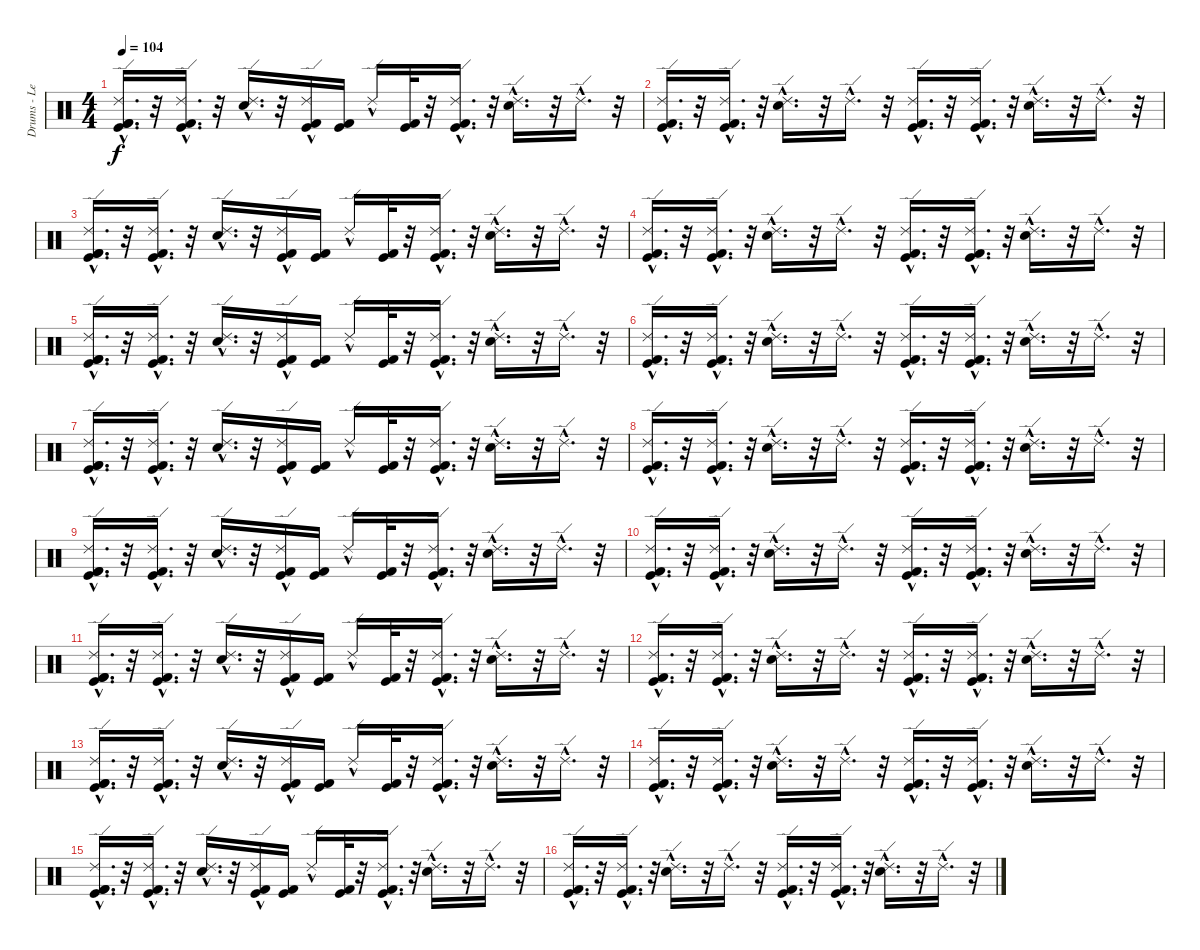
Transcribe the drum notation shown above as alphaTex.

\track ("Drums - Les Claypool" "Drums - Le") {instrument percussion}
\staff {score}
\articulation defaults
\ts (4 4)
\tempo 104
\clef neutral
\ks c
("Kick (hit) 2"{hac} "Ride (edge) 2"{hac} "Kick (hit) 2"{hac} "Kick (hit)"{hac}).16{d dy f} r.32 ("Ride (edge) 2"{hac} "Kick (hit) 2"{hac} "Kick (hit)"{hac}).16{d} r.32 ("Ride (edge) 2"{hac} "Snare (hit) 2"{hac}).16{d} r.32 ("Kick (hit) 2" "Kick (hit)" "Ride (edge) 2"{hac}).16 ("Kick (hit) 2" "Kick (hit)").16 "Ride (edge) 2"{hac}.16 ("Kick (hit) 2" "Kick (hit)").32 r.32 ("Kick (hit) 2"{hac} "Kick (hit)" "Ride (edge) 2"{hac}).16{d} r.32 ("Ride (edge) 2"{hac} "Snare (hit) 2"{hac}).16{d} r.32 "Ride (edge) 2"{hac}.16{d} r.32 |
("Ride (edge) 2"{hac} "Kick (hit) 2"{hac} "Kick (hit)"{hac}).16{d} r.32 ("Kick (hit) 2"{hac} "Ride (edge) 2"{hac} "Kick (hit)"{hac}).16{d} r.32 ("Ride (edge) 2"{hac} "Snare (hit) 2"{hac}).16{d} r.32 "Ride (edge) 2"{hac}.16{d} r.32 ("Kick (hit) 2"{hac} "Ride (edge) 2"{hac} "Kick (hit)"{hac}).16{d} r.32 ("Kick (hit) 2"{hac} "Kick (hit)"{hac} "Ride (edge) 2"{hac}).16{d} r.32 ("Ride (edge) 2"{hac} "Snare (hit) 2"{hac}).16{d} r.32 "Ride (edge) 2"{hac}.16{d} r.32 |
("Kick (hit) 2"{hac} "Ride (edge) 2"{hac} "Kick (hit) 2"{hac} "Kick (hit)"{hac}).16{d} r.32 ("Ride (edge) 2"{hac} "Kick (hit) 2"{hac} "Kick (hit)"{hac}).16{d} r.32 ("Ride (edge) 2"{hac} "Snare (hit) 2"{hac}).16{d} r.32 ("Kick (hit) 2" "Kick (hit)" "Ride (edge) 2"{hac}).16 ("Kick (hit) 2" "Kick (hit)").16 "Ride (edge) 2"{hac}.16 ("Kick (hit) 2" "Kick (hit)").32 r.32 ("Kick (hit) 2"{hac} "Kick (hit)" "Ride (edge) 2"{hac}).16{d} r.32 ("Ride (edge) 2"{hac} "Snare (hit) 2"{hac}).16{d} r.32 "Ride (edge) 2"{hac}.16{d} r.32 |
("Ride (edge) 2"{hac} "Kick (hit) 2"{hac} "Kick (hit)"{hac}).16{d} r.32 ("Kick (hit) 2"{hac} "Ride (edge) 2"{hac} "Kick (hit)"{hac}).16{d} r.32 ("Ride (edge) 2"{hac} "Snare (hit) 2"{hac}).16{d} r.32 "Ride (edge) 2"{hac}.16{d} r.32 ("Kick (hit) 2"{hac} "Ride (edge) 2"{hac} "Kick (hit)"{hac}).16{d} r.32 ("Kick (hit) 2"{hac} "Kick (hit)"{hac} "Ride (edge) 2"{hac}).16{d} r.32 ("Ride (edge) 2"{hac} "Snare (hit) 2"{hac}).16{d} r.32 "Ride (edge) 2"{hac}.16{d} r.32 |
("Kick (hit) 2"{hac} "Ride (edge) 2"{hac} "Kick (hit) 2"{hac} "Kick (hit)"{hac}).16{d} r.32 ("Ride (edge) 2"{hac} "Kick (hit) 2"{hac} "Kick (hit)"{hac}).16{d} r.32 ("Ride (edge) 2"{hac} "Snare (hit) 2"{hac}).16{d} r.32 ("Kick (hit) 2" "Kick (hit)" "Ride (edge) 2"{hac}).16 ("Kick (hit) 2" "Kick (hit)").16 "Ride (edge) 2"{hac}.16 ("Kick (hit) 2" "Kick (hit)").32 r.32 ("Kick (hit) 2"{hac} "Kick (hit)" "Ride (edge) 2"{hac}).16{d} r.32 ("Ride (edge) 2"{hac} "Snare (hit) 2"{hac}).16{d} r.32 "Ride (edge) 2"{hac}.16{d} r.32 |
("Ride (edge) 2"{hac} "Kick (hit) 2"{hac} "Kick (hit)"{hac}).16{d} r.32 ("Kick (hit) 2"{hac} "Ride (edge) 2"{hac} "Kick (hit)"{hac}).16{d} r.32 ("Ride (edge) 2"{hac} "Snare (hit) 2"{hac}).16{d} r.32 "Ride (edge) 2"{hac}.16{d} r.32 ("Kick (hit) 2"{hac} "Ride (edge) 2"{hac} "Kick (hit)"{hac}).16{d} r.32 ("Kick (hit) 2"{hac} "Kick (hit)"{hac} "Ride (edge) 2"{hac}).16{d} r.32 ("Ride (edge) 2"{hac} "Snare (hit) 2"{hac}).16{d} r.32 "Ride (edge) 2"{hac}.16{d} r.32 |
("Kick (hit) 2"{hac} "Ride (edge) 2"{hac} "Kick (hit) 2"{hac} "Kick (hit)"{hac}).16{d} r.32 ("Ride (edge) 2"{hac} "Kick (hit) 2"{hac} "Kick (hit)"{hac}).16{d} r.32 ("Ride (edge) 2"{hac} "Snare (hit) 2"{hac}).16{d} r.32 ("Kick (hit) 2" "Kick (hit)" "Ride (edge) 2"{hac}).16 ("Kick (hit) 2" "Kick (hit)").16 "Ride (edge) 2"{hac}.16 ("Kick (hit) 2" "Kick (hit)").32 r.32 ("Kick (hit) 2"{hac} "Kick (hit)" "Ride (edge) 2"{hac}).16{d} r.32 ("Ride (edge) 2"{hac} "Snare (hit) 2"{hac}).16{d} r.32 "Ride (edge) 2"{hac}.16{d} r.32 |
("Ride (edge) 2"{hac} "Kick (hit) 2"{hac} "Kick (hit)"{hac}).16{d} r.32 ("Kick (hit) 2"{hac} "Ride (edge) 2"{hac} "Kick (hit)"{hac}).16{d} r.32 ("Ride (edge) 2"{hac} "Snare (hit) 2"{hac}).16{d} r.32 "Ride (edge) 2"{hac}.16{d} r.32 ("Kick (hit) 2"{hac} "Ride (edge) 2"{hac} "Kick (hit)"{hac}).16{d} r.32 ("Kick (hit) 2"{hac} "Kick (hit)"{hac} "Ride (edge) 2"{hac}).16{d} r.32 ("Ride (edge) 2"{hac} "Snare (hit) 2"{hac}).16{d} r.32 "Ride (edge) 2"{hac}.16{d} r.32 |
("Kick (hit) 2"{hac} "Ride (edge) 2"{hac} "Kick (hit) 2"{hac} "Kick (hit)"{hac}).16{d} r.32 ("Ride (edge) 2"{hac} "Kick (hit) 2"{hac} "Kick (hit)"{hac}).16{d} r.32 ("Ride (edge) 2"{hac} "Snare (hit) 2"{hac}).16{d} r.32 ("Kick (hit) 2" "Kick (hit)" "Ride (edge) 2"{hac}).16 ("Kick (hit) 2" "Kick (hit)").16 "Ride (edge) 2"{hac}.16 ("Kick (hit) 2" "Kick (hit)").32 r.32 ("Kick (hit) 2"{hac} "Kick (hit)" "Ride (edge) 2"{hac}).16{d} r.32 ("Ride (edge) 2"{hac} "Snare (hit) 2"{hac}).16{d} r.32 "Ride (edge) 2"{hac}.16{d} r.32 |
("Ride (edge) 2"{hac} "Kick (hit) 2"{hac} "Kick (hit)"{hac}).16{d} r.32 ("Kick (hit) 2"{hac} "Ride (edge) 2"{hac} "Kick (hit)"{hac}).16{d} r.32 ("Ride (edge) 2"{hac} "Snare (hit) 2"{hac}).16{d} r.32 "Ride (edge) 2"{hac}.16{d} r.32 ("Kick (hit) 2"{hac} "Ride (edge) 2"{hac} "Kick (hit)"{hac}).16{d} r.32 ("Kick (hit) 2"{hac} "Kick (hit)"{hac} "Ride (edge) 2"{hac}).16{d} r.32 ("Ride (edge) 2"{hac} "Snare (hit) 2"{hac}).16{d} r.32 "Ride (edge) 2"{hac}.16{d} r.32 |
("Kick (hit) 2"{hac} "Ride (edge) 2"{hac} "Kick (hit) 2"{hac} "Kick (hit)"{hac}).16{d} r.32 ("Ride (edge) 2"{hac} "Kick (hit) 2"{hac} "Kick (hit)"{hac}).16{d} r.32 ("Ride (edge) 2"{hac} "Snare (hit) 2"{hac}).16{d} r.32 ("Kick (hit) 2" "Kick (hit)" "Ride (edge) 2"{hac}).16 ("Kick (hit) 2" "Kick (hit)").16 "Ride (edge) 2"{hac}.16 ("Kick (hit) 2" "Kick (hit)").32 r.32 ("Kick (hit) 2"{hac} "Kick (hit)" "Ride (edge) 2"{hac}).16{d} r.32 ("Ride (edge) 2"{hac} "Snare (hit) 2"{hac}).16{d} r.32 "Ride (edge) 2"{hac}.16{d} r.32 |
("Ride (edge) 2"{hac} "Kick (hit) 2"{hac} "Kick (hit)"{hac}).16{d} r.32 ("Kick (hit) 2"{hac} "Ride (edge) 2"{hac} "Kick (hit)"{hac}).16{d} r.32 ("Ride (edge) 2"{hac} "Snare (hit) 2"{hac}).16{d} r.32 "Ride (edge) 2"{hac}.16{d} r.32 ("Kick (hit) 2"{hac} "Ride (edge) 2"{hac} "Kick (hit)"{hac}).16{d} r.32 ("Kick (hit) 2"{hac} "Kick (hit)"{hac} "Ride (edge) 2"{hac}).16{d} r.32 ("Ride (edge) 2"{hac} "Snare (hit) 2"{hac}).16{d} r.32 "Ride (edge) 2"{hac}.16{d} r.32 |
("Kick (hit) 2"{hac} "Ride (edge) 2"{hac} "Kick (hit) 2"{hac} "Kick (hit)"{hac}).16{d} r.32 ("Ride (edge) 2"{hac} "Kick (hit) 2"{hac} "Kick (hit)"{hac}).16{d} r.32 ("Ride (edge) 2"{hac} "Snare (hit) 2"{hac}).16{d} r.32 ("Kick (hit) 2" "Kick (hit)" "Ride (edge) 2"{hac}).16 ("Kick (hit) 2" "Kick (hit)").16 "Ride (edge) 2"{hac}.16 ("Kick (hit) 2" "Kick (hit)").32 r.32 ("Kick (hit) 2"{hac} "Kick (hit)" "Ride (edge) 2"{hac}).16{d} r.32 ("Ride (edge) 2"{hac} "Snare (hit) 2"{hac}).16{d} r.32 "Ride (edge) 2"{hac}.16{d} r.32 |
("Ride (edge) 2"{hac} "Kick (hit) 2"{hac} "Kick (hit)"{hac}).16{d} r.32 ("Kick (hit) 2"{hac} "Ride (edge) 2"{hac} "Kick (hit)"{hac}).16{d} r.32 ("Ride (edge) 2"{hac} "Snare (hit) 2"{hac}).16{d} r.32 "Ride (edge) 2"{hac}.16{d} r.32 ("Kick (hit) 2"{hac} "Ride (edge) 2"{hac} "Kick (hit)"{hac}).16{d} r.32 ("Kick (hit) 2"{hac} "Kick (hit)"{hac} "Ride (edge) 2"{hac}).16{d} r.32 ("Ride (edge) 2"{hac} "Snare (hit) 2"{hac}).16{d} r.32 "Ride (edge) 2"{hac}.16{d} r.32 |
("Kick (hit) 2"{hac} "Ride (edge) 2"{hac} "Kick (hit) 2"{hac} "Kick (hit)"{hac}).16{d} r.32 ("Ride (edge) 2"{hac} "Kick (hit) 2"{hac} "Kick (hit)"{hac}).16{d} r.32 ("Ride (edge) 2"{hac} "Snare (hit) 2"{hac}).16{d} r.32 ("Kick (hit) 2" "Kick (hit)" "Ride (edge) 2"{hac}).16 ("Kick (hit) 2" "Kick (hit)").16 "Ride (edge) 2"{hac}.16 ("Kick (hit) 2" "Kick (hit)").32 r.32 ("Kick (hit) 2"{hac} "Kick (hit)" "Ride (edge) 2"{hac}).16{d} r.32 ("Ride (edge) 2"{hac} "Snare (hit) 2"{hac}).16{d} r.32 "Ride (edge) 2"{hac}.16{d} r.32 |
("Ride (edge) 2"{hac} "Kick (hit) 2"{hac} "Kick (hit)"{hac}).16{d} r.32 ("Kick (hit) 2"{hac} "Ride (edge) 2"{hac} "Kick (hit)"{hac}).16{d} r.32 ("Ride (edge) 2"{hac} "Snare (hit) 2"{hac}).16{d} r.32 "Ride (edge) 2"{hac}.16{d} r.32 ("Kick (hit) 2"{hac} "Ride (edge) 2"{hac} "Kick (hit)"{hac}).16{d} r.32 ("Kick (hit) 2"{hac} "Kick (hit)"{hac} "Ride (edge) 2"{hac}).16{d} r.32 ("Ride (edge) 2"{hac} "Snare (hit) 2"{hac}).16{d} r.32 "Ride (edge) 2"{hac}.16{d} r.32
